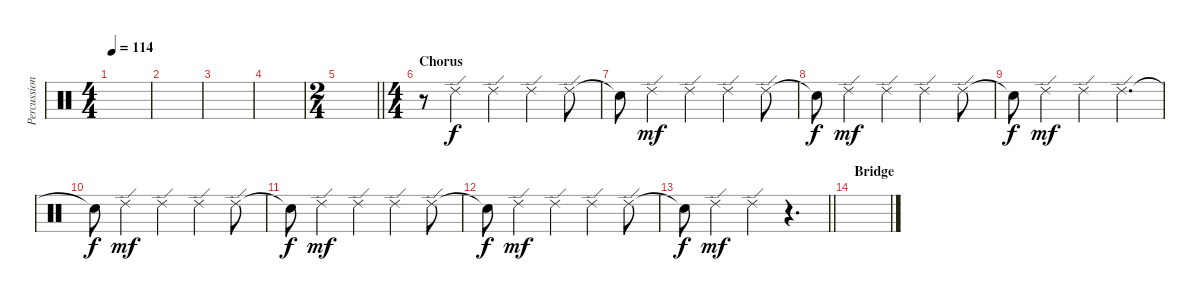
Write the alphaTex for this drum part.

\track ("Percussion (Brandon Saller)" "Percussion") {instrument percussion}
\staff {score}
\articulation defaults
\ts (4 4)
\tempo 114
\clef neutral
\ks c
|
|
|
|
\ts (2 4)
\barLineRight lightlight
|
\ts (4 4)
\section ("" "Chorus")
r.8 "Ride (edge) 2".4 "Ride (edge) 2".4 "Ride (edge) 2".4 "Ride (edge) 2".8 |
"Snare (hit)"{t}.8{dy f} "Ride (edge) 2".4{dy mf} "Ride (edge) 2".4 "Ride (edge) 2".4 "Ride (edge) 2".8 |
"Snare (hit)"{t}.8{dy f} "Ride (edge) 2".4{dy mf} "Ride (edge) 2".4 "Ride (edge) 2".4 "Ride (edge) 2".8 |
"Snare (hit)"{t}.8{dy f} "Ride (edge) 2".4{dy mf} "Ride (edge) 2".4 "Ride (edge) 2".4{d} |
"Snare (hit)"{t}.8{dy f} "Ride (edge) 2".4{dy mf} "Ride (edge) 2".4 "Ride (edge) 2".4 "Ride (edge) 2".8 |
"Snare (hit)"{t}.8{dy f} "Ride (edge) 2".4{dy mf} "Ride (edge) 2".4 "Ride (edge) 2".4 "Ride (edge) 2".8 |
"Snare (hit)"{t}.8{dy f} "Ride (edge) 2".4{dy mf} "Ride (edge) 2".4 "Ride (edge) 2".4 "Ride (edge) 2".8 |
\barLineRight lightlight "Snare (hit)"{t}.8{dy f} "Ride (edge) 2".4{dy mf} "Ride (edge) 2".4
r.4{d} |
\section ("" "Bridge")
